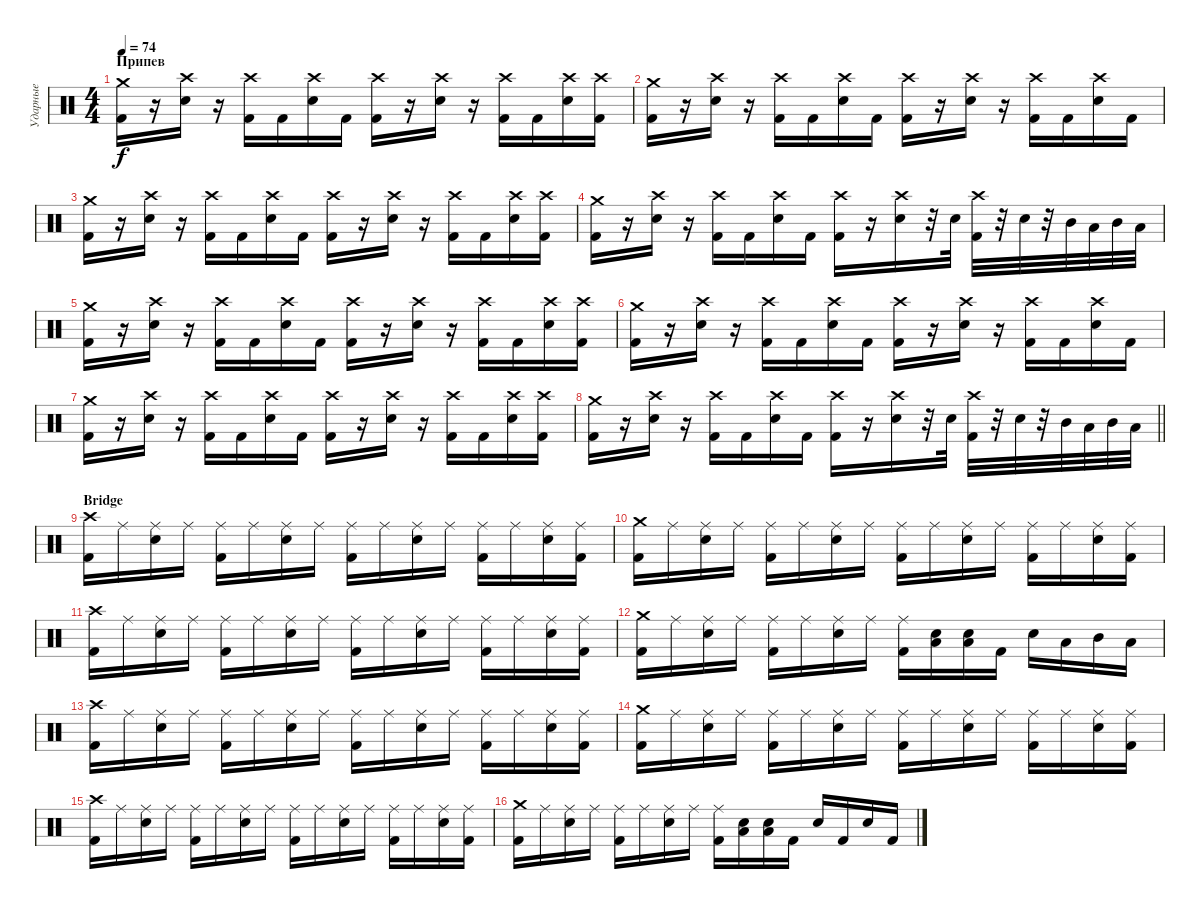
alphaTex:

\track ("Ударные" "Ударные") {instrument percussion}
\staff {score}
\articulation defaults
\ts (4 4)
\section ("" "Припев")
\tempo 74
\clef neutral
\ks c
("Crash medium (hit)" "Kick (hit) 2").16{dy f} r.16 ("Crash high (hit)" "Electric Snare (hit)").16 r.16 ("Crash high (hit)" "Kick (hit) 2").16 "Kick (hit) 2".16 ("Crash high (hit)" "Electric Snare (hit)").16 "Kick (hit) 2".16 ("Crash high (hit)" "Kick (hit) 2").16 r.16 ("Crash high (hit)" "Electric Snare (hit)").16 r.16 ("Crash high (hit)" "Kick (hit) 2").16 "Kick (hit) 2".16 ("Crash high (hit)" "Electric Snare (hit)").16 ("Crash high (hit)" "Kick (hit) 2").16 |
("Crash medium (hit)" "Kick (hit) 2").16 r.16 ("Crash high (hit)" "Electric Snare (hit)").16 r.16 ("Crash high (hit)" "Kick (hit) 2").16 "Kick (hit) 2".16 ("Crash high (hit)" "Electric Snare (hit)").16 "Kick (hit) 2".16 ("Crash high (hit)" "Kick (hit) 2").16 r.16 ("Crash high (hit)" "Electric Snare (hit)").16 r.16 ("Crash high (hit)" "Kick (hit) 2").16 "Kick (hit) 2".16 ("Crash high (hit)" "Electric Snare (hit)").16 "Kick (hit) 2".16 |
("Crash medium (hit)" "Kick (hit) 2").16 r.16 ("Crash high (hit)" "Electric Snare (hit)").16 r.16 ("Crash high (hit)" "Kick (hit) 2").16 "Kick (hit) 2".16 ("Crash high (hit)" "Electric Snare (hit)").16 "Kick (hit) 2".16 ("Crash high (hit)" "Kick (hit) 2").16 r.16 ("Crash high (hit)" "Electric Snare (hit)").16 r.16 ("Crash high (hit)" "Kick (hit) 2").16 "Kick (hit) 2".16 ("Crash high (hit)" "Electric Snare (hit)").16 ("Crash high (hit)" "Kick (hit) 2").16 |
("Crash medium (hit)" "Kick (hit) 2").16 r.16 ("Crash high (hit)" "Electric Snare (hit)").16 r.16 ("Crash high (hit)" "Kick (hit) 2").16 "Kick (hit) 2".16 ("Crash high (hit)" "Electric Snare (hit)").16 "Kick (hit) 2".16 ("Crash high (hit)" "Kick (hit) 2").16 r.16 ("Crash high (hit)" "Electric Snare (hit)").16 r.32 "Electric Snare (hit)".32 ("Crash high (hit)" "Kick (hit) 2").32 r.32 "Electric Snare (hit)".32 r.32 "Mid Tom (hit)".32 "Low Tom (hit)".32 "Mid Tom (hit)".32 "Low Tom (hit)".32 |
("Crash medium (hit)" "Kick (hit) 2").16 r.16 ("Crash high (hit)" "Electric Snare (hit)").16 r.16 ("Crash high (hit)" "Kick (hit) 2").16 "Kick (hit) 2".16 ("Crash high (hit)" "Electric Snare (hit)").16 "Kick (hit) 2".16 ("Crash high (hit)" "Kick (hit) 2").16 r.16 ("Crash high (hit)" "Electric Snare (hit)").16 r.16 ("Crash high (hit)" "Kick (hit) 2").16 "Kick (hit) 2".16 ("Crash high (hit)" "Electric Snare (hit)").16 ("Crash high (hit)" "Kick (hit) 2").16 |
("Crash medium (hit)" "Kick (hit) 2").16 r.16 ("Crash high (hit)" "Electric Snare (hit)").16 r.16 ("Crash high (hit)" "Kick (hit) 2").16 "Kick (hit) 2".16 ("Crash high (hit)" "Electric Snare (hit)").16 "Kick (hit) 2".16 ("Crash high (hit)" "Kick (hit) 2").16 r.16 ("Crash high (hit)" "Electric Snare (hit)").16 r.16 ("Crash high (hit)" "Kick (hit) 2").16 "Kick (hit) 2".16 ("Crash high (hit)" "Electric Snare (hit)").16 "Kick (hit) 2".16 |
("Crash medium (hit)" "Kick (hit) 2").16 r.16 ("Crash high (hit)" "Electric Snare (hit)").16 r.16 ("Crash high (hit)" "Kick (hit) 2").16 "Kick (hit) 2".16 ("Crash high (hit)" "Electric Snare (hit)").16 "Kick (hit) 2".16 ("Crash high (hit)" "Kick (hit) 2").16 r.16 ("Crash high (hit)" "Electric Snare (hit)").16 r.16 ("Crash high (hit)" "Kick (hit) 2").16 "Kick (hit) 2".16 ("Crash high (hit)" "Electric Snare (hit)").16 ("Crash high (hit)" "Kick (hit) 2").16 |
\barLineRight lightlight
("Crash medium (hit)" "Kick (hit) 2").16 r.16 ("Crash high (hit)" "Electric Snare (hit)").16 r.16 ("Crash high (hit)" "Kick (hit) 2").16 "Kick (hit) 2".16 ("Crash high (hit)" "Electric Snare (hit)").16 "Kick (hit) 2".16 ("Crash high (hit)" "Kick (hit) 2").16 r.16 ("Crash high (hit)" "Electric Snare (hit)").16 r.32 "Electric Snare (hit)".32 ("Crash high (hit)" "Kick (hit) 2").32 r.32 "Electric Snare (hit)".32 r.32 "Mid Tom (hit)".32 "Low Tom (hit)".32 "Mid Tom (hit)".32 "Low Tom (hit)".32 |
\section ("" "Bridge")
("Crash high (hit)" "Kick (hit) 2").16 "Ride (middle)".16 ("Ride (middle)" "Electric Snare (hit)").16 "Ride (middle)".16 ("Ride (middle)" "Kick (hit) 2").16 "Ride (middle)".16 ("Ride (middle)" "Electric Snare (hit)").16 "Ride (middle)".16 ("Ride (middle)" "Kick (hit) 2").16 "Ride (middle)".16 ("Ride (middle)" "Electric Snare (hit)").16 "Ride (middle)".16 ("Ride (middle)" "Kick (hit) 2").16 "Ride (middle)".16 ("Ride (middle)" "Electric Snare (hit)").16 ("Ride (middle)" "Kick (hit) 2").16 |
("Crash medium (hit)" "Kick (hit) 2").16 "Ride (middle)".16 ("Ride (middle)" "Electric Snare (hit)").16 "Ride (middle)".16 ("Ride (middle)" "Kick (hit) 2").16 "Ride (middle)".16 ("Ride (middle)" "Electric Snare (hit)").16 "Ride (middle)".16 ("Ride (middle)" "Kick (hit) 2").16 "Ride (middle)".16 ("Ride (middle)" "Electric Snare (hit)").16 "Ride (middle)".16 ("Ride (middle)" "Kick (hit) 2").16 "Ride (middle)".16 ("Ride (middle)" "Electric Snare (hit)").16 ("Ride (middle)" "Kick (hit) 2").16 |
("Crash high (hit)" "Kick (hit) 2").16 "Ride (middle)".16 ("Ride (middle)" "Electric Snare (hit)").16 "Ride (middle)".16 ("Ride (middle)" "Kick (hit) 2").16 "Ride (middle)".16 ("Ride (middle)" "Electric Snare (hit)").16 "Ride (middle)".16 ("Ride (middle)" "Kick (hit) 2").16 "Ride (middle)".16 ("Ride (middle)" "Electric Snare (hit)").16 "Ride (middle)".16 ("Ride (middle)" "Kick (hit) 2").16 "Ride (middle)".16 ("Ride (middle)" "Electric Snare (hit)").16 ("Ride (middle)" "Kick (hit) 2").16 |
("Crash medium (hit)" "Kick (hit) 2").16 "Ride (middle)".16 ("Ride (middle)" "Electric Snare (hit)").16 "Ride (middle)".16 ("Ride (middle)" "Kick (hit) 2").16 "Ride (middle)".16 ("Ride (middle)" "Electric Snare (hit)").16 "Ride (middle)".16 ("Ride (middle)" "Kick (hit) 2").16 ("Low Floor Tom (hit)" "Electric Snare (hit)").16 ("Low Floor Tom (hit)" "Electric Snare (hit)").16 "Kick (hit) 2".16 "Electric Snare (hit)".16 "Low Tom (hit)".16 "Mid Tom (hit)".16 "Low Tom (hit)".16 |
("Crash high (hit)" "Kick (hit) 2").16 "Ride (middle)".16 ("Ride (middle)" "Electric Snare (hit)").16 "Ride (middle)".16 ("Ride (middle)" "Kick (hit) 2").16 "Ride (middle)".16 ("Ride (middle)" "Electric Snare (hit)").16 "Ride (middle)".16 ("Ride (middle)" "Kick (hit) 2").16 "Ride (middle)".16 ("Ride (middle)" "Electric Snare (hit)").16 "Ride (middle)".16 ("Ride (middle)" "Kick (hit) 2").16 "Ride (middle)".16 ("Ride (middle)" "Electric Snare (hit)").16 ("Ride (middle)" "Kick (hit) 2").16 |
("Crash medium (hit)" "Kick (hit) 2").16 "Ride (middle)".16 ("Ride (middle)" "Electric Snare (hit)").16 "Ride (middle)".16 ("Ride (middle)" "Kick (hit) 2").16 "Ride (middle)".16 ("Ride (middle)" "Electric Snare (hit)").16 "Ride (middle)".16 ("Ride (middle)" "Kick (hit) 2").16 "Ride (middle)".16 ("Ride (middle)" "Electric Snare (hit)").16 "Ride (middle)".16 ("Ride (middle)" "Kick (hit) 2").16 "Ride (middle)".16 ("Ride (middle)" "Electric Snare (hit)").16 ("Ride (middle)" "Kick (hit) 2").16 |
("Crash high (hit)" "Kick (hit) 2").16 "Ride (middle)".16 ("Ride (middle)" "Electric Snare (hit)").16 "Ride (middle)".16 ("Ride (middle)" "Kick (hit) 2").16 "Ride (middle)".16 ("Ride (middle)" "Electric Snare (hit)").16 "Ride (middle)".16 ("Ride (middle)" "Kick (hit) 2").16 "Ride (middle)".16 ("Ride (middle)" "Electric Snare (hit)").16 "Ride (middle)".16 ("Ride (middle)" "Kick (hit) 2").16 "Ride (middle)".16 ("Ride (middle)" "Electric Snare (hit)").16 ("Ride (middle)" "Kick (hit) 2").16 |
("Crash medium (hit)" "Kick (hit) 2").16 "Ride (middle)".16 ("Ride (middle)" "Electric Snare (hit)").16 "Ride (middle)".16 ("Ride (middle)" "Kick (hit) 2").16 "Ride (middle)".16 ("Ride (middle)" "Electric Snare (hit)").16 "Ride (middle)".16 ("Ride (middle)" "Kick (hit) 2").16 ("Low Floor Tom (hit)" "Electric Snare (hit)").16 ("Low Floor Tom (hit)" "Electric Snare (hit)").16 "Kick (hit) 2".16 "Electric Snare (hit)".16 "Kick (hit) 2".16 "Electric Snare (hit)".16 "Kick (hit) 2".16
